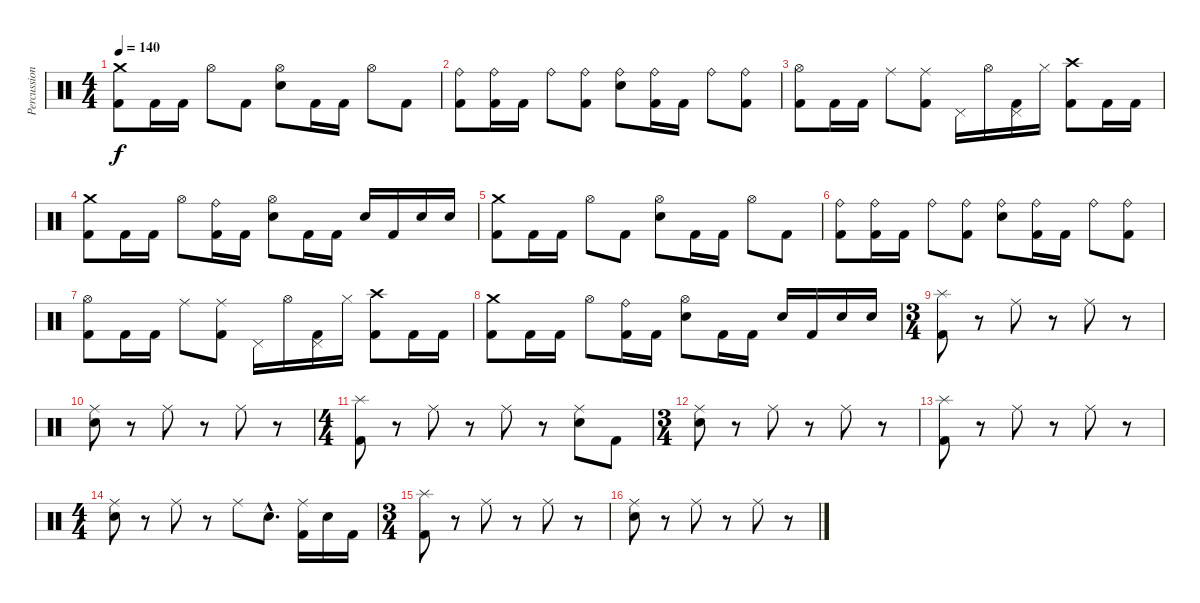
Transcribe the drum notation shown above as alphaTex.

\track ("Percussion" "Percussion") {instrument percussion}
\staff {score}
\articulation defaults
\ts (4 4)
\tempo 140
\clef neutral
\ks c
("Crash medium (hit)" "Kick (hit) 2").8{dy f} "Kick (hit) 2".16 "Kick (hit) 2".16 "Hi-Hat (open)".8 "Kick (hit) 2".8 ("Hi-Hat (open)" "Electric Snare (hit)").8 "Kick (hit) 2".16 "Kick (hit) 2".16 "Hi-Hat (open)".8 "Kick (hit) 2".8 |
("Ride (bell)" "Kick (hit) 2").8 ("Ride (bell)" "Kick (hit) 2").16 "Kick (hit) 2".16 "Ride (bell)".8 ("Ride (bell)" "Kick (hit) 2").8 ("Ride (bell)" "Electric Snare (hit)").8 ("Ride (bell)" "Kick (hit) 2").16 "Kick (hit) 2".16 "Ride (bell)".8 ("Ride (bell)" "Kick (hit) 2").8 |
("Hi-Hat (open)" "Kick (hit) 2").8 "Kick (hit) 2".16 "Kick (hit) 2".16 "Ride (middle)".8 ("Ride (middle)" "Kick (hit) 2").8 "Pedal Hi-Hat (hit)".16 "Hi-Hat (open)".16 ("Pedal Hi-Hat (hit)" "Kick (hit) 2").16 "Hi-Hat (closed)".16 ("Crash high (hit)" "Kick (hit) 2").8 "Kick (hit) 2".16 "Kick (hit) 2".16 |
("Crash medium (hit)" "Kick (hit) 2").8 "Kick (hit) 2".16 "Kick (hit) 2".16 "Hi-Hat (open)".8 ("Ride (bell)" "Kick (hit) 2").16 "Kick (hit) 2".16 ("Hi-Hat (open)" "Electric Snare (hit)").8 "Kick (hit) 2".16 "Kick (hit) 2".16 "Electric Snare (hit)".16 "Kick (hit) 2".16 "Electric Snare (hit)".16 "Electric Snare (hit)".16 |
("Crash medium (hit)" "Kick (hit) 2").8 "Kick (hit) 2".16 "Kick (hit) 2".16 "Hi-Hat (open)".8 "Kick (hit) 2".8 ("Hi-Hat (open)" "Electric Snare (hit)").8 "Kick (hit) 2".16 "Kick (hit) 2".16 "Hi-Hat (open)".8 "Kick (hit) 2".8 |
("Ride (bell)" "Kick (hit) 2").8 ("Ride (bell)" "Kick (hit) 2").16 "Kick (hit) 2".16 "Ride (bell)".8 ("Ride (bell)" "Kick (hit) 2").8 ("Ride (bell)" "Electric Snare (hit)").8 ("Ride (bell)" "Kick (hit) 2").16 "Kick (hit) 2".16 "Ride (bell)".8 ("Ride (bell)" "Kick (hit) 2").8 |
("Hi-Hat (open)" "Kick (hit) 2").8 "Kick (hit) 2".16 "Kick (hit) 2".16 "Ride (middle)".8 ("Ride (middle)" "Kick (hit) 2").8 "Pedal Hi-Hat (hit)".16 "Hi-Hat (open)".16 ("Pedal Hi-Hat (hit)" "Kick (hit) 2").16 "Hi-Hat (closed)".16 ("Crash high (hit)" "Kick (hit) 2").8 "Kick (hit) 2".16 "Kick (hit) 2".16 |
("Crash medium (hit)" "Kick (hit) 2").8 "Kick (hit) 2".16 "Kick (hit) 2".16 "Hi-Hat (open)".8 ("Ride (bell)" "Kick (hit) 2").16 "Kick (hit) 2".16 ("Hi-Hat (open)" "Electric Snare (hit)").8 "Kick (hit) 2".16 "Kick (hit) 2".16 "Electric Snare (hit)".16 "Kick (hit) 2".16 "Electric Snare (hit)".16 "Electric Snare (hit)".16 |
\ts (3 4)
("Splash (hit)" "Kick (hit) 2").8 r.8 "Ride (middle)".8 r.8 "Ride (middle)".8 r.8 |
("Ride (middle)" "Electric Snare (hit)").8 r.8 "Ride (middle)".8 r.8 "Ride (middle)".8 r.8 |
\ts (4 4)
("Splash (hit)" "Kick (hit) 2").8 r.8 "Ride (middle)".8 r.8 "Ride (middle)".8 r.8 ("Ride (middle)" "Electric Snare (hit)").8 "Kick (hit) 2".8 |
\ts (3 4)
("Ride (middle)" "Electric Snare (hit)").8 r.8 "Ride (middle)".8 r.8 "Ride (middle)".8 r.8 |
("Splash (hit)" "Kick (hit) 2").8 r.8 "Ride (middle)".8 r.8 "Ride (middle)".8 r.8 |
\ts (4 4)
("Ride (middle)" "Electric Snare (hit)").8 r.8 "Ride (middle)".8 r.8 "Ride (middle)".8 "Electric Snare (hit)"{hac}.8{d} ("Ride (middle)" "Kick (hit) 2").16 "Electric Snare (hit)".16 "Kick (hit) 2".16 |
\ts (3 4)
("Splash (hit)" "Kick (hit) 2").8 r.8 "Ride (middle)".8 r.8 "Ride (middle)".8 r.8 |
("Ride (middle)" "Electric Snare (hit)").8 r.8 "Ride (middle)".8 r.8 "Ride (middle)".8 r.8
